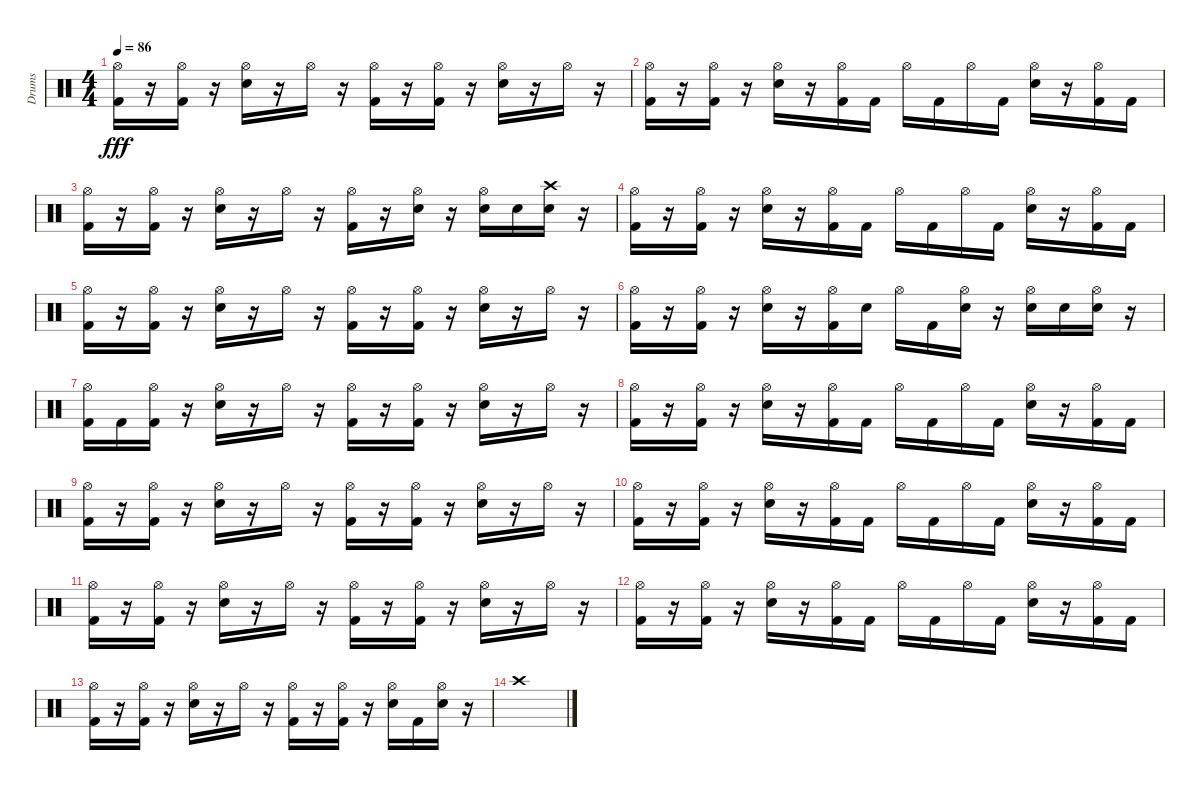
\track ("Drums" "Drums") {instrument percussion}
\staff {score}
\articulation defaults
\ts (4 4)
\tempo 86
\clef neutral
\ks c
("Hi-Hat (open)" "Kick (hit) 2").16{dy fff} r.16 ("Hi-Hat (open)" "Kick (hit) 2").16 r.16 ("Hi-Hat (open)" "Electric Snare (hit)").16 r.16 "Hi-Hat (open)".16 r.16 ("Hi-Hat (open)" "Kick (hit) 2").16 r.16 ("Hi-Hat (open)" "Kick (hit) 2").16 r.16 ("Hi-Hat (open)" "Electric Snare (hit)").16 r.16 "Hi-Hat (open)".16 r.16 |
("Hi-Hat (open)" "Kick (hit) 2").16 r.16 ("Hi-Hat (open)" "Kick (hit) 2").16 r.16 ("Hi-Hat (open)" "Electric Snare (hit)").16 r.16 ("Hi-Hat (open)" "Kick (hit) 2").16 "Kick (hit) 2".16 "Hi-Hat (open)".16 "Kick (hit) 2".16 "Hi-Hat (open)".16 "Kick (hit) 2".16 ("Hi-Hat (open)" "Electric Snare (hit)").16 r.16 ("Hi-Hat (open)" "Kick (hit) 2").16 "Kick (hit) 2".16 |
("Hi-Hat (open)" "Kick (hit) 2").16 r.16 ("Hi-Hat (open)" "Kick (hit) 2").16 r.16 ("Hi-Hat (open)" "Electric Snare (hit)").16 r.16 "Hi-Hat (open)".16 r.16 ("Hi-Hat (open)" "Kick (hit) 2").16 r.16 ("Hi-Hat (open)" "Electric Snare (hit)").16 r.16 ("Hi-Hat (open)" "Electric Snare (hit)").16 "Electric Snare (hit)".16 ("Crash high (hit)" "Electric Snare (hit)").16 r.16 |
("Hi-Hat (open)" "Kick (hit) 2").16 r.16 ("Hi-Hat (open)" "Kick (hit) 2").16 r.16 ("Hi-Hat (open)" "Electric Snare (hit)").16 r.16 ("Hi-Hat (open)" "Kick (hit) 2").16 "Kick (hit) 2".16 "Hi-Hat (open)".16 "Kick (hit) 2".16 "Hi-Hat (open)".16 "Kick (hit) 2".16 ("Hi-Hat (open)" "Electric Snare (hit)").16 r.16 ("Hi-Hat (open)" "Kick (hit) 2").16 "Kick (hit) 2".16 |
("Hi-Hat (open)" "Kick (hit) 2").16 r.16 ("Hi-Hat (open)" "Kick (hit) 2").16 r.16 ("Hi-Hat (open)" "Electric Snare (hit)").16 r.16 "Hi-Hat (open)".16 r.16 ("Hi-Hat (open)" "Kick (hit) 2").16 r.16 ("Hi-Hat (open)" "Kick (hit) 2").16 r.16 ("Hi-Hat (open)" "Electric Snare (hit)").16 r.16 "Hi-Hat (open)".16 r.16 |
("Hi-Hat (open)" "Kick (hit) 2").16 r.16 ("Hi-Hat (open)" "Kick (hit) 2").16 r.16 ("Hi-Hat (open)" "Electric Snare (hit)").16 r.16 ("Hi-Hat (open)" "Kick (hit) 2").16 "Electric Snare (hit)".16 "Hi-Hat (open)".16 "Kick (hit) 2".16 ("Hi-Hat (open)" "Electric Snare (hit)").16 r.16 ("Hi-Hat (open)" "Electric Snare (hit)").16 "Electric Snare (hit)".16 ("Hi-Hat (open)" "Electric Snare (hit)").16 r.16 |
("Hi-Hat (open)" "Kick (hit) 2").16 "Kick (hit) 2".16 ("Hi-Hat (open)" "Kick (hit) 2").16 r.16 ("Hi-Hat (open)" "Electric Snare (hit)").16 r.16 "Hi-Hat (open)".16 r.16 ("Hi-Hat (open)" "Kick (hit) 2").16 r.16 ("Hi-Hat (open)" "Kick (hit) 2").16 r.16 ("Hi-Hat (open)" "Electric Snare (hit)").16 r.16 "Hi-Hat (open)".16 r.16 |
("Hi-Hat (open)" "Kick (hit) 2").16 r.16 ("Hi-Hat (open)" "Kick (hit) 2").16 r.16 ("Hi-Hat (open)" "Electric Snare (hit)").16 r.16 ("Hi-Hat (open)" "Kick (hit) 2").16 "Kick (hit) 2".16 "Hi-Hat (open)".16 "Kick (hit) 2".16 "Hi-Hat (open)".16 "Kick (hit) 2".16 ("Hi-Hat (open)" "Electric Snare (hit)").16 r.16 ("Hi-Hat (open)" "Kick (hit) 2").16 "Kick (hit) 2".16 |
("Hi-Hat (open)" "Kick (hit) 2").16 r.16 ("Hi-Hat (open)" "Kick (hit) 2").16 r.16 ("Hi-Hat (open)" "Electric Snare (hit)").16 r.16 "Hi-Hat (open)".16 r.16 ("Hi-Hat (open)" "Kick (hit) 2").16 r.16 ("Hi-Hat (open)" "Kick (hit) 2").16 r.16 ("Hi-Hat (open)" "Electric Snare (hit)").16 r.16 "Hi-Hat (open)".16 r.16 |
("Hi-Hat (open)" "Kick (hit) 2").16 r.16 ("Hi-Hat (open)" "Kick (hit) 2").16 r.16 ("Hi-Hat (open)" "Electric Snare (hit)").16 r.16 ("Hi-Hat (open)" "Kick (hit) 2").16 "Kick (hit) 2".16 "Hi-Hat (open)".16 "Kick (hit) 2".16 "Hi-Hat (open)".16 "Kick (hit) 2".16 ("Hi-Hat (open)" "Electric Snare (hit)").16 r.16 ("Hi-Hat (open)" "Kick (hit) 2").16 "Kick (hit) 2".16 |
("Hi-Hat (open)" "Kick (hit) 2").16 r.16 ("Hi-Hat (open)" "Kick (hit) 2").16 r.16 ("Hi-Hat (open)" "Electric Snare (hit)").16 r.16 "Hi-Hat (open)".16 r.16 ("Hi-Hat (open)" "Kick (hit) 2").16 r.16 ("Hi-Hat (open)" "Kick (hit) 2").16 r.16 ("Hi-Hat (open)" "Electric Snare (hit)").16 r.16 "Hi-Hat (open)".16 r.16 |
("Hi-Hat (open)" "Kick (hit) 2").16 r.16 ("Hi-Hat (open)" "Kick (hit) 2").16 r.16 ("Hi-Hat (open)" "Electric Snare (hit)").16 r.16 ("Hi-Hat (open)" "Kick (hit) 2").16 "Kick (hit) 2".16 "Hi-Hat (open)".16 "Kick (hit) 2".16 "Hi-Hat (open)".16 "Kick (hit) 2".16 ("Hi-Hat (open)" "Electric Snare (hit)").16 r.16 ("Hi-Hat (open)" "Kick (hit) 2").16 "Kick (hit) 2".16 |
("Hi-Hat (open)" "Kick (hit) 2").16 r.16 ("Hi-Hat (open)" "Kick (hit) 2").16 r.16 ("Hi-Hat (open)" "Electric Snare (hit)").16 r.16 "Hi-Hat (open)".16 r.16 ("Hi-Hat (open)" "Kick (hit) 2").16 r.16 ("Hi-Hat (open)" "Kick (hit) 2").16 r.16 ("Hi-Hat (open)" "Electric Snare (hit)").16 "Kick (hit) 2".16 ("Hi-Hat (open)" "Electric Snare (hit)").16 r.16 |
"Crash high (hit)".1
